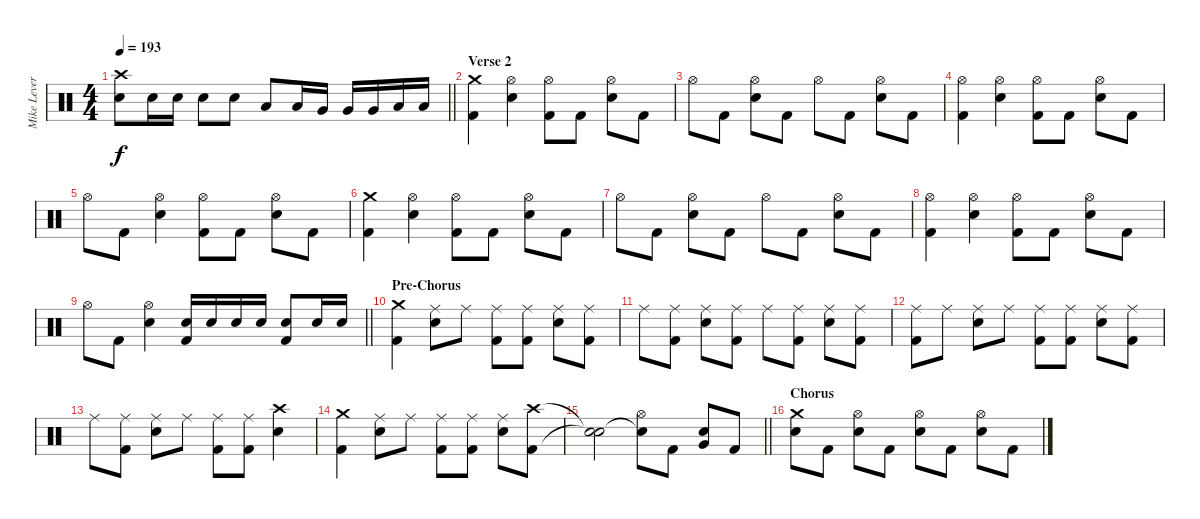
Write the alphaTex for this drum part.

\track ("Mike Leverence - Drums" "Mike Lever") {instrument percussion}
\staff {score}
\articulation defaults
\ts (4 4)
\tempo 193
\clef neutral
\barLineRight lightlight
\ks c
("Crash high (hit)" "Electric Snare (hit)").8{dy f} "Electric Snare (hit)".16 "Electric Snare (hit)".16 "Electric Snare (hit)".8 "Electric Snare (hit)".8 "Low Tom (hit)".8 "Low Tom (hit)".16 "Very Low Tom (hit)".16 "Very Low Tom (hit)".16 "Very Low Tom (hit)".16 "Low Floor Tom (hit)".16 "Low Floor Tom (hit)".16 |
\section ("" "Verse 2")
("Crash medium (hit)" "Kick (hit) 2").4 ("Hi-Hat (open)" "Electric Snare (hit)").4 ("Hi-Hat (open)" "Kick (hit) 2").8 "Kick (hit) 2".8 ("Hi-Hat (open)" "Electric Snare (hit)").8 "Kick (hit) 2".8 |
"Hi-Hat (open)".8 "Kick (hit) 2".8 ("Hi-Hat (open)" "Electric Snare (hit)").8 "Kick (hit) 2".8 "Hi-Hat (open)".8 "Kick (hit) 2".8 ("Hi-Hat (open)" "Electric Snare (hit)").8 "Kick (hit) 2".8 |
("Hi-Hat (open)" "Kick (hit) 2").4 ("Hi-Hat (open)" "Electric Snare (hit)").4 ("Hi-Hat (open)" "Kick (hit) 2").8 "Kick (hit) 2".8 ("Hi-Hat (open)" "Electric Snare (hit)").8 "Kick (hit) 2".8 |
"Hi-Hat (open)".8 "Kick (hit) 2".8 ("Hi-Hat (open)" "Electric Snare (hit)").4 ("Hi-Hat (open)" "Kick (hit) 2").8 "Kick (hit) 2".8 ("Hi-Hat (open)" "Electric Snare (hit)").8 "Kick (hit) 2".8 |
("Crash medium (hit)" "Kick (hit) 2").4 ("Hi-Hat (open)" "Electric Snare (hit)").4 ("Hi-Hat (open)" "Kick (hit) 2").8 "Kick (hit) 2".8 ("Hi-Hat (open)" "Electric Snare (hit)").8 "Kick (hit) 2".8 |
"Hi-Hat (open)".8 "Kick (hit) 2".8 ("Hi-Hat (open)" "Electric Snare (hit)").8 "Kick (hit) 2".8 "Hi-Hat (open)".8 "Kick (hit) 2".8 ("Hi-Hat (open)" "Electric Snare (hit)").8 "Kick (hit) 2".8 |
("Hi-Hat (open)" "Kick (hit) 2").4 ("Hi-Hat (open)" "Electric Snare (hit)").4 ("Hi-Hat (open)" "Kick (hit) 2").8 "Kick (hit) 2".8 ("Hi-Hat (open)" "Electric Snare (hit)").8 "Kick (hit) 2".8 |
\barLineRight lightlight "Hi-Hat (open)".8 "Kick (hit) 2".8
("Hi-Hat (open)" "Electric Snare (hit)").4 ("Electric Snare (hit)" "Kick (hit) 2").16 "Electric Snare (hit)".16 "Electric Snare (hit)".16 "Electric Snare (hit)".16 ("Electric Snare (hit)" "Kick (hit) 2").8 "Electric Snare (hit)".16 "Electric Snare (hit)".16 |
\section ("" "Pre-Chorus")
("Crash medium (hit)" "Kick (hit) 2").4 ("Ride (middle)" "Electric Snare (hit)").8 "Ride (middle)".8 ("Ride (middle)" "Kick (hit) 2").8 ("Ride (middle)" "Kick (hit) 2").8 ("Ride (middle)" "Electric Snare (hit)").8 ("Ride (middle)" "Kick (hit) 2").8 |
"Ride (middle)".8 ("Ride (middle)" "Kick (hit) 2").8 ("Ride (middle)" "Electric Snare (hit)").8 ("Ride (middle)" "Kick (hit) 2").8 "Ride (middle)".8 ("Ride (middle)" "Kick (hit) 2").8 ("Ride (middle)" "Electric Snare (hit)").8 ("Ride (middle)" "Kick (hit) 2").8 |
("Ride (middle)" "Kick (hit) 2").8 "Ride (middle)".8 ("Ride (middle)" "Electric Snare (hit)").8 "Ride (middle)".8 ("Ride (middle)" "Kick (hit) 2").8 ("Ride (middle)" "Kick (hit) 2").8 ("Ride (middle)" "Electric Snare (hit)").8 ("Ride (middle)" "Kick (hit) 2").8 |
"Ride (middle)".8 ("Ride (middle)" "Kick (hit) 2").8 ("Ride (middle)" "Electric Snare (hit)").8 "Ride (middle)".8 ("Ride (middle)" "Kick (hit) 2").8 ("Ride (middle)" "Kick (hit) 2").8 ("Crash high (hit)" "Electric Snare (hit)").4 |
("Crash medium (hit)" "Kick (hit) 2").4 ("Ride (middle)" "Electric Snare (hit)").8 "Ride (middle)".8 ("Ride (middle)" "Kick (hit) 2").8 ("Ride (middle)" "Kick (hit) 2").8 ("Ride (middle)" "Electric Snare (hit)").8 ("Crash high (hit)" "Kick (hit) 2").8 |
\barLineRight lightlight
("Snare (hit)"{t} "Snare (hit)"{t}).2 ("Hi-Hat (open)" "Snare (hit)"{t}).8 "Kick (hit) 2".8 ("Very Low Tom (hit)" "Electric Snare (hit)").8 "Kick (hit) 2".8 |
\section ("" "Chorus")
("Crash medium (hit)" "Electric Snare (hit)").8 "Kick (hit) 2".8 ("Hi-Hat (open)" "Electric Snare (hit)").8 "Kick (hit) 2".8 ("Hi-Hat (open)" "Electric Snare (hit)").8 "Kick (hit) 2".8 ("Hi-Hat (open)" "Electric Snare (hit)").8 "Kick (hit) 2".8
